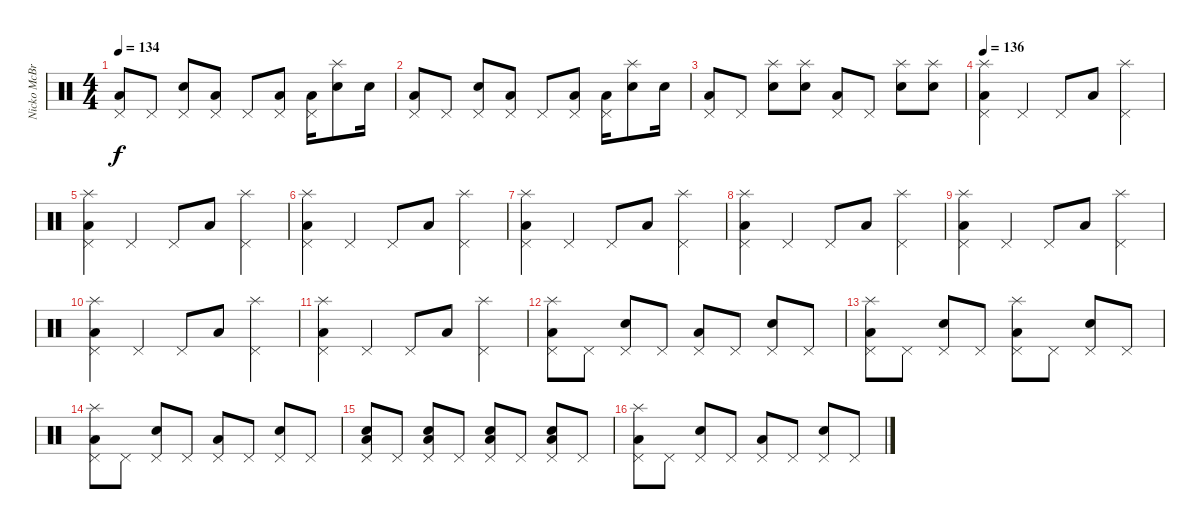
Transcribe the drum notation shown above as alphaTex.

\track ("Nicko McBrian" "Nicko McBr") {instrument percussion}
\staff {score}
\articulation defaults
\ts (4 4)
\tempo 134
\clef neutral
\ks c
("Low Floor Tom (hit)" "Pedal Hi-Hat (hit)").8{dy f} "Pedal Hi-Hat (hit)".8 ("Electric Snare (hit)" "Pedal Hi-Hat (hit)").8 ("Low Floor Tom (hit)" "Pedal Hi-Hat (hit)").8 "Pedal Hi-Hat (hit)".8 ("Low Floor Tom (hit)" "Pedal Hi-Hat (hit)").8 ("Low Floor Tom (hit)" "Pedal Hi-Hat (hit)").16 ("Electric Snare (hit)" "Splash (hit)").8 "Electric Snare (hit)".16 |
("Low Floor Tom (hit)" "Pedal Hi-Hat (hit)").8 "Pedal Hi-Hat (hit)".8 ("Electric Snare (hit)" "Pedal Hi-Hat (hit)").8 ("Low Floor Tom (hit)" "Pedal Hi-Hat (hit)").8 "Pedal Hi-Hat (hit)".8 ("Low Floor Tom (hit)" "Pedal Hi-Hat (hit)").8 ("Low Floor Tom (hit)" "Pedal Hi-Hat (hit)").16 ("Electric Snare (hit)" "Splash (hit)").8 "Electric Snare (hit)".16 |
("Low Floor Tom (hit)" "Pedal Hi-Hat (hit)").8 "Pedal Hi-Hat (hit)".8 ("Electric Snare (hit)" "Splash (hit)").8 ("Electric Snare (hit)" "Splash (hit)").8 ("Low Floor Tom (hit)" "Pedal Hi-Hat (hit)").8 "Pedal Hi-Hat (hit)".8 ("Electric Snare (hit)" "Splash (hit)").8 ("Electric Snare (hit)" "Splash (hit)").8 |
\tempo 136
("Low Floor Tom (hit)" "Pedal Hi-Hat (hit)" "Splash (hit)").4 "Pedal Hi-Hat (hit)".4 "Pedal Hi-Hat (hit)".8 "Low Floor Tom (hit)".8 ("Pedal Hi-Hat (hit)" "Splash (hit)").4 |
("Low Floor Tom (hit)" "Pedal Hi-Hat (hit)" "Splash (hit)").4 "Pedal Hi-Hat (hit)".4 "Pedal Hi-Hat (hit)".8 "Low Floor Tom (hit)".8 ("Pedal Hi-Hat (hit)" "Splash (hit)").4 |
("Low Floor Tom (hit)" "Pedal Hi-Hat (hit)" "Splash (hit)").4 "Pedal Hi-Hat (hit)".4 "Pedal Hi-Hat (hit)".8 "Low Floor Tom (hit)".8 ("Pedal Hi-Hat (hit)" "Splash (hit)").4 |
("Low Floor Tom (hit)" "Pedal Hi-Hat (hit)" "Splash (hit)").4 "Pedal Hi-Hat (hit)".4 "Pedal Hi-Hat (hit)".8 "Low Floor Tom (hit)".8 ("Pedal Hi-Hat (hit)" "Splash (hit)").4 |
("Low Floor Tom (hit)" "Pedal Hi-Hat (hit)" "Splash (hit)").4 "Pedal Hi-Hat (hit)".4 "Pedal Hi-Hat (hit)".8 "Low Floor Tom (hit)".8 ("Pedal Hi-Hat (hit)" "Splash (hit)").4 |
("Low Floor Tom (hit)" "Pedal Hi-Hat (hit)" "Splash (hit)").4 "Pedal Hi-Hat (hit)".4 "Pedal Hi-Hat (hit)".8 "Low Floor Tom (hit)".8 ("Pedal Hi-Hat (hit)" "Splash (hit)").4 |
("Low Floor Tom (hit)" "Pedal Hi-Hat (hit)" "Splash (hit)").4 "Pedal Hi-Hat (hit)".4 "Pedal Hi-Hat (hit)".8 "Low Floor Tom (hit)".8 ("Pedal Hi-Hat (hit)" "Splash (hit)").4 |
("Low Floor Tom (hit)" "Pedal Hi-Hat (hit)" "Splash (hit)").4 "Pedal Hi-Hat (hit)".4 "Pedal Hi-Hat (hit)".8 "Low Floor Tom (hit)".8 ("Pedal Hi-Hat (hit)" "Splash (hit)").4 |
("Low Floor Tom (hit)" "Pedal Hi-Hat (hit)" "Splash (hit)").8 "Pedal Hi-Hat (hit)".8 ("Electric Snare (hit)" "Pedal Hi-Hat (hit)").8 "Pedal Hi-Hat (hit)".8 ("Low Floor Tom (hit)" "Pedal Hi-Hat (hit)").8 "Pedal Hi-Hat (hit)".8 ("Electric Snare (hit)" "Pedal Hi-Hat (hit)").8 "Pedal Hi-Hat (hit)".8 |
("Low Floor Tom (hit)" "Pedal Hi-Hat (hit)" "Splash (hit)").8 "Pedal Hi-Hat (hit)".8 ("Electric Snare (hit)" "Pedal Hi-Hat (hit)").8 "Pedal Hi-Hat (hit)".8 ("Low Floor Tom (hit)" "Pedal Hi-Hat (hit)" "Splash (hit)").8 "Pedal Hi-Hat (hit)".8 ("Electric Snare (hit)" "Pedal Hi-Hat (hit)").8 "Pedal Hi-Hat (hit)".8 |
("Low Floor Tom (hit)" "Pedal Hi-Hat (hit)" "Splash (hit)").8 "Pedal Hi-Hat (hit)".8 ("Electric Snare (hit)" "Pedal Hi-Hat (hit)").8 "Pedal Hi-Hat (hit)".8 ("Low Floor Tom (hit)" "Pedal Hi-Hat (hit)").8 "Pedal Hi-Hat (hit)".8 ("Electric Snare (hit)" "Pedal Hi-Hat (hit)").8 "Pedal Hi-Hat (hit)".8 |
("Electric Snare (hit)" "Low Floor Tom (hit)" "Pedal Hi-Hat (hit)").8 "Pedal Hi-Hat (hit)".8 ("Electric Snare (hit)" "Low Floor Tom (hit)" "Pedal Hi-Hat (hit)").8 "Pedal Hi-Hat (hit)".8 ("Electric Snare (hit)" "Low Floor Tom (hit)" "Pedal Hi-Hat (hit)").8 "Pedal Hi-Hat (hit)".8 ("Electric Snare (hit)" "Low Floor Tom (hit)" "Pedal Hi-Hat (hit)").8 "Pedal Hi-Hat (hit)".8 |
("Low Floor Tom (hit)" "Pedal Hi-Hat (hit)" "Splash (hit)").8 "Pedal Hi-Hat (hit)".8 ("Electric Snare (hit)" "Pedal Hi-Hat (hit)").8 "Pedal Hi-Hat (hit)".8 ("Low Floor Tom (hit)" "Pedal Hi-Hat (hit)").8 "Pedal Hi-Hat (hit)".8 ("Electric Snare (hit)" "Pedal Hi-Hat (hit)").8 "Pedal Hi-Hat (hit)".8
